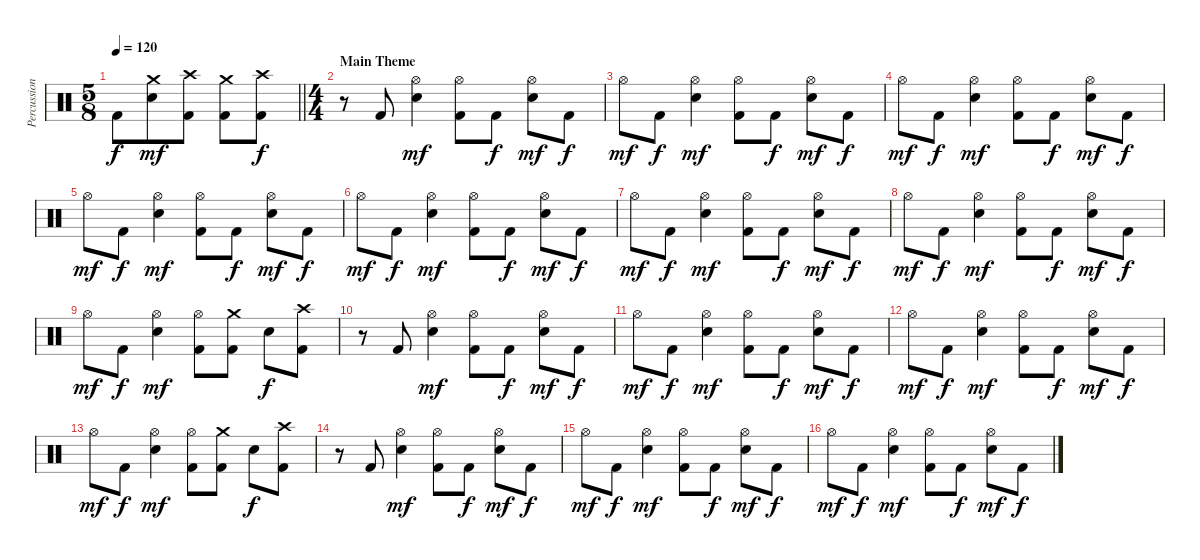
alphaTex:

\track ("Percussion" "Percussion") {instrument percussion}
\staff {score}
\articulation defaults
\ts (5 8)
\tempo 120
\clef neutral
\barLineRight lightlight
\ks c "Kick (hit) 2".8{dy f}
("Crash medium (hit)" "Electric Snare (hit)").8{dy mf} ("Crash high (hit)" "Kick (hit) 2").8 ("Crash medium (hit)" "Kick (hit) 2").8 ("Crash high (hit)" "Kick (hit) 2").8{dy f} |
\ts (4 4)
\section ("" "Main Theme")
r.8 "Kick (hit) 2".8 ("Hi-Hat (open)" "Electric Snare (hit)").4{dy mf} ("Hi-Hat (open)" "Kick (hit) 2").8 "Kick (hit) 2".8{dy f} ("Hi-Hat (open)" "Electric Snare (hit)").8{dy mf} "Kick (hit) 2".8{dy f} |
"Hi-Hat (open)".8{dy mf} "Kick (hit) 2".8{dy f} ("Hi-Hat (open)" "Electric Snare (hit)").4{dy mf} ("Hi-Hat (open)" "Kick (hit) 2").8 "Kick (hit) 2".8{dy f} ("Hi-Hat (open)" "Electric Snare (hit)").8{dy mf} "Kick (hit) 2".8{dy f} |
"Hi-Hat (open)".8{dy mf} "Kick (hit) 2".8{dy f} ("Hi-Hat (open)" "Electric Snare (hit)").4{dy mf} ("Hi-Hat (open)" "Kick (hit) 2").8 "Kick (hit) 2".8{dy f} ("Hi-Hat (open)" "Electric Snare (hit)").8{dy mf} "Kick (hit) 2".8{dy f} |
"Hi-Hat (open)".8{dy mf} "Kick (hit) 2".8{dy f} ("Hi-Hat (open)" "Electric Snare (hit)").4{dy mf} ("Hi-Hat (open)" "Kick (hit) 2").8 "Kick (hit) 2".8{dy f} ("Hi-Hat (open)" "Electric Snare (hit)").8{dy mf} "Kick (hit) 2".8{dy f} |
"Hi-Hat (open)".8{dy mf} "Kick (hit) 2".8{dy f} ("Hi-Hat (open)" "Electric Snare (hit)").4{dy mf} ("Hi-Hat (open)" "Kick (hit) 2").8 "Kick (hit) 2".8{dy f} ("Hi-Hat (open)" "Electric Snare (hit)").8{dy mf} "Kick (hit) 2".8{dy f} |
"Hi-Hat (open)".8{dy mf} "Kick (hit) 2".8{dy f} ("Hi-Hat (open)" "Electric Snare (hit)").4{dy mf} ("Hi-Hat (open)" "Kick (hit) 2").8 "Kick (hit) 2".8{dy f} ("Hi-Hat (open)" "Electric Snare (hit)").8{dy mf} "Kick (hit) 2".8{dy f} |
"Hi-Hat (open)".8{dy mf} "Kick (hit) 2".8{dy f} ("Hi-Hat (open)" "Electric Snare (hit)").4{dy mf} ("Hi-Hat (open)" "Kick (hit) 2").8 "Kick (hit) 2".8{dy f} ("Hi-Hat (open)" "Electric Snare (hit)").8{dy mf} "Kick (hit) 2".8{dy f} |
"Hi-Hat (open)".8{dy mf} "Kick (hit) 2".8{dy f} ("Hi-Hat (open)" "Electric Snare (hit)").4{dy mf} ("Hi-Hat (open)" "Kick (hit) 2").8 ("Crash medium (hit)" "Kick (hit) 2").8 "Electric Snare (hit)".8{dy f} ("Crash high (hit)" "Kick (hit) 2").8 |
r.8 "Kick (hit) 2".8 ("Hi-Hat (open)" "Electric Snare (hit)").4{dy mf} ("Hi-Hat (open)" "Kick (hit) 2").8 "Kick (hit) 2".8{dy f} ("Hi-Hat (open)" "Electric Snare (hit)").8{dy mf} "Kick (hit) 2".8{dy f} |
"Hi-Hat (open)".8{dy mf} "Kick (hit) 2".8{dy f} ("Hi-Hat (open)" "Electric Snare (hit)").4{dy mf} ("Hi-Hat (open)" "Kick (hit) 2").8 "Kick (hit) 2".8{dy f} ("Hi-Hat (open)" "Electric Snare (hit)").8{dy mf} "Kick (hit) 2".8{dy f} |
"Hi-Hat (open)".8{dy mf} "Kick (hit) 2".8{dy f} ("Hi-Hat (open)" "Electric Snare (hit)").4{dy mf} ("Hi-Hat (open)" "Kick (hit) 2").8 "Kick (hit) 2".8{dy f} ("Hi-Hat (open)" "Electric Snare (hit)").8{dy mf} "Kick (hit) 2".8{dy f} |
"Hi-Hat (open)".8{dy mf} "Kick (hit) 2".8{dy f} ("Hi-Hat (open)" "Electric Snare (hit)").4{dy mf} ("Hi-Hat (open)" "Kick (hit) 2").8 ("Crash medium (hit)" "Kick (hit) 2").8 "Electric Snare (hit)".8{dy f} ("Crash high (hit)" "Kick (hit) 2").8 |
r.8 "Kick (hit) 2".8 ("Hi-Hat (open)" "Electric Snare (hit)").4{dy mf} ("Hi-Hat (open)" "Kick (hit) 2").8 "Kick (hit) 2".8{dy f} ("Hi-Hat (open)" "Electric Snare (hit)").8{dy mf} "Kick (hit) 2".8{dy f} |
"Hi-Hat (open)".8{dy mf} "Kick (hit) 2".8{dy f} ("Hi-Hat (open)" "Electric Snare (hit)").4{dy mf} ("Hi-Hat (open)" "Kick (hit) 2").8 "Kick (hit) 2".8{dy f} ("Hi-Hat (open)" "Electric Snare (hit)").8{dy mf} "Kick (hit) 2".8{dy f} |
"Hi-Hat (open)".8{dy mf} "Kick (hit) 2".8{dy f} ("Hi-Hat (open)" "Electric Snare (hit)").4{dy mf} ("Hi-Hat (open)" "Kick (hit) 2").8 "Kick (hit) 2".8{dy f} ("Hi-Hat (open)" "Electric Snare (hit)").8{dy mf} "Kick (hit) 2".8{dy f}
